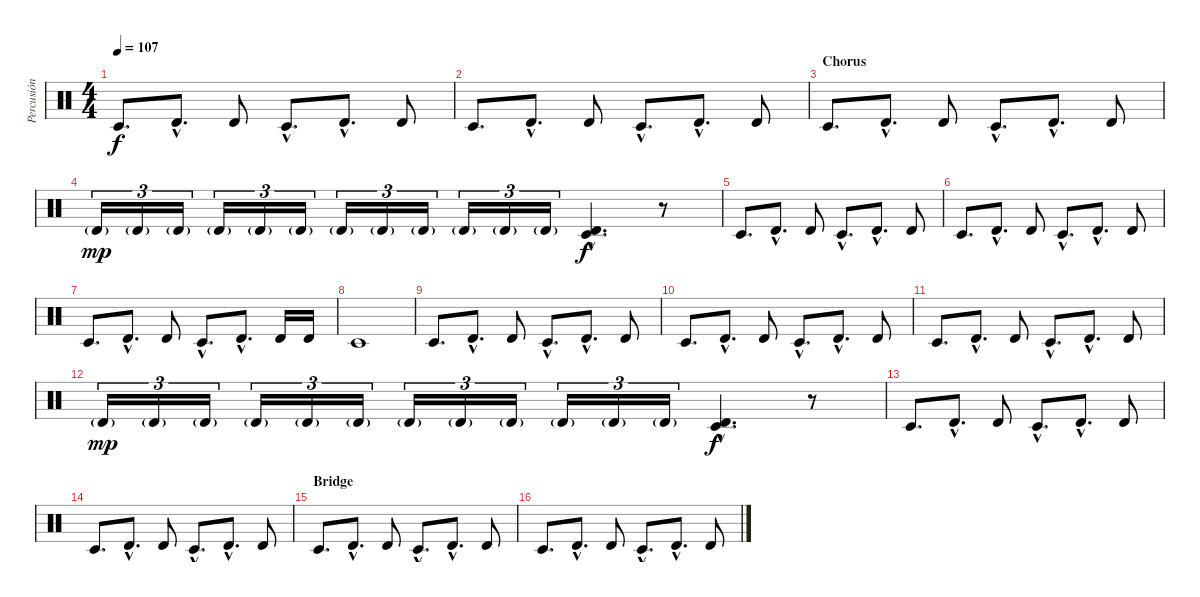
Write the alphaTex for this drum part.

\track ("Percusión" "Percusión") {instrument percussion}
\staff {score}
\articulation defaults
\ts (4 4)
\tempo 107
\clef neutral
\ks c "Timbale low (hit)".8{d dy f} "Timbale high (hit)"{hac}.8{d} "Timbale high (hit)".8 "Timbale low (hit)"{hac}.8{d} "Timbale high (hit)"{hac}.8{d} "Timbale high (hit)".8
|
"Timbale low (hit)".8{d} "Timbale high (hit)"{hac}.8{d} "Timbale high (hit)".8 "Timbale low (hit)"{hac}.8{d} "Timbale high (hit)"{hac}.8{d} "Timbale high (hit)".8 |
\section ("" "Chorus")
"Timbale low (hit)".8{d} "Timbale high (hit)"{hac}.8{d} "Timbale high (hit)".8 "Timbale low (hit)"{hac}.8{d} "Timbale high (hit)"{hac}.8{d} "Timbale high (hit)".8 |
"Timbale high (hit)"{g}.16{tu (3 2) dy mp} "Timbale high (hit)"{g}.16{tu (3 2)} "Timbale high (hit)"{g}.16{tu (3 2)} "Timbale high (hit)"{g}.16{tu (3 2)} "Timbale high (hit)"{g}.16{tu (3 2)} "Timbale high (hit)"{g}.16{tu (3 2)} "Timbale high (hit)"{g}.16{tu (3 2)} "Timbale high (hit)"{g}.16{tu (3 2)} "Timbale high (hit)"{g}.16{tu (3 2)} "Timbale high (hit)"{g}.16{tu (3 2)} "Timbale high (hit)"{g}.16{tu (3 2)} "Timbale high (hit)"{g}.16{tu (3 2)} ("Timbale low (hit)"{hac} "Timbale high (hit)"{hac}).4{d dy f} r.8 |
"Timbale low (hit)".8{d} "Timbale high (hit)"{hac}.8{d} "Timbale high (hit)".8 "Timbale low (hit)"{hac}.8{d} "Timbale high (hit)"{hac}.8{d} "Timbale high (hit)".8 |
"Timbale low (hit)".8{d} "Timbale high (hit)"{hac}.8{d} "Timbale high (hit)".8 "Timbale low (hit)"{hac}.8{d} "Timbale high (hit)"{hac}.8{d} "Timbale high (hit)".8 |
"Timbale low (hit)".8{d} "Timbale high (hit)"{hac}.8{d} "Timbale high (hit)".8 "Timbale low (hit)"{hac}.8{d} "Timbale high (hit)"{hac}.8{d} "Timbale high (hit)".16 "Timbale high (hit)".16 |
"Timbale low (hit)".1 |
"Timbale low (hit)".8{d} "Timbale high (hit)"{hac}.8{d} "Timbale high (hit)".8 "Timbale low (hit)"{hac}.8{d} "Timbale high (hit)"{hac}.8{d} "Timbale high (hit)".8 |
"Timbale low (hit)".8{d} "Timbale high (hit)"{hac}.8{d} "Timbale high (hit)".8 "Timbale low (hit)"{hac}.8{d} "Timbale high (hit)"{hac}.8{d} "Timbale high (hit)".8 |
"Timbale low (hit)".8{d} "Timbale high (hit)"{hac}.8{d} "Timbale high (hit)".8 "Timbale low (hit)"{hac}.8{d} "Timbale high (hit)"{hac}.8{d} "Timbale high (hit)".8 |
"Timbale high (hit)"{g}.16{tu (3 2) dy mp} "Timbale high (hit)"{g}.16{tu (3 2)} "Timbale high (hit)"{g}.16{tu (3 2)} "Timbale high (hit)"{g}.16{tu (3 2)} "Timbale high (hit)"{g}.16{tu (3 2)} "Timbale high (hit)"{g}.16{tu (3 2)} "Timbale high (hit)"{g}.16{tu (3 2)} "Timbale high (hit)"{g}.16{tu (3 2)} "Timbale high (hit)"{g}.16{tu (3 2)} "Timbale high (hit)"{g}.16{tu (3 2)} "Timbale high (hit)"{g}.16{tu (3 2)} "Timbale high (hit)"{g}.16{tu (3 2)} ("Timbale low (hit)"{hac} "Timbale high (hit)"{hac}).4{d dy f} r.8 |
"Timbale low (hit)".8{d} "Timbale high (hit)"{hac}.8{d} "Timbale high (hit)".8 "Timbale low (hit)"{hac}.8{d} "Timbale high (hit)"{hac}.8{d} "Timbale high (hit)".8 |
"Timbale low (hit)".8{d} "Timbale high (hit)"{hac}.8{d} "Timbale high (hit)".8 "Timbale low (hit)"{hac}.8{d} "Timbale high (hit)"{hac}.8{d} "Timbale high (hit)".8 |
\section ("" "Bridge")
"Timbale low (hit)".8{d} "Timbale high (hit)"{hac}.8{d} "Timbale high (hit)".8 "Timbale low (hit)"{hac}.8{d} "Timbale high (hit)"{hac}.8{d} "Timbale high (hit)".8 |
"Timbale low (hit)".8{d} "Timbale high (hit)"{hac}.8{d} "Timbale high (hit)".8 "Timbale low (hit)"{hac}.8{d} "Timbale high (hit)"{hac}.8{d} "Timbale high (hit)".8
